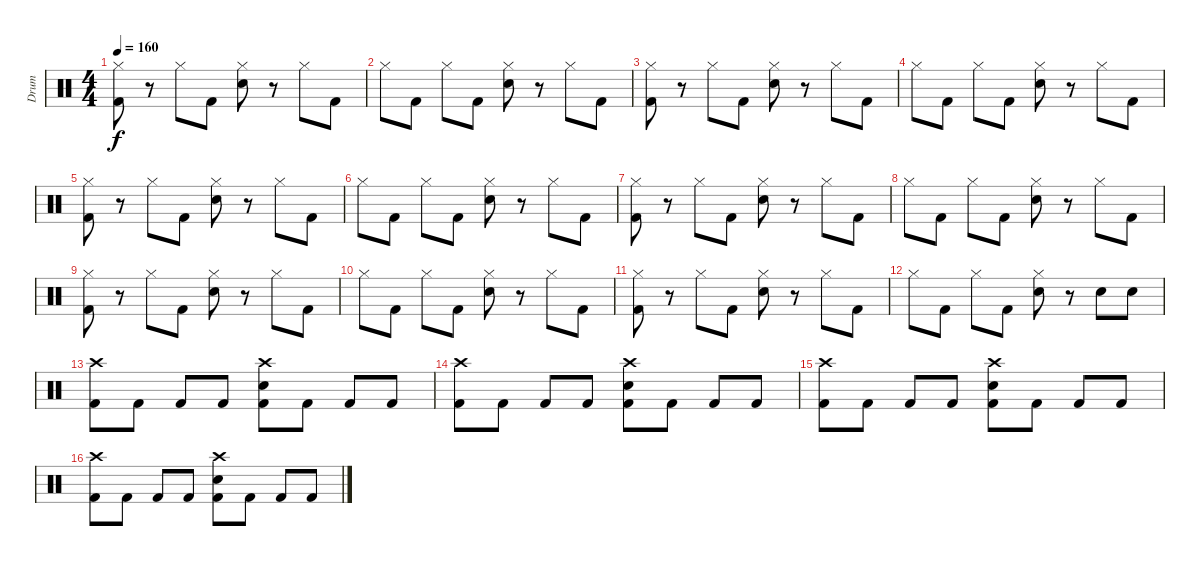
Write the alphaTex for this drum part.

\track ("Drum" "Drum") {instrument percussion}
\staff {score}
\articulation defaults
\ts (4 4)
\tempo 160
\clef neutral
\ks c
("Hi-Hat (closed)" "Kick (hit) 2").8{dy f} r.8 "Hi-Hat (closed)".8 "Kick (hit) 2".8 ("Hi-Hat (closed)" "Electric Snare (hit)").8 r.8 "Hi-Hat (closed)".8 "Kick (hit) 2".8 |
"Hi-Hat (closed)".8 "Kick (hit) 2".8 "Hi-Hat (closed)".8 "Kick (hit) 2".8 ("Hi-Hat (closed)" "Electric Snare (hit)").8 r.8 "Hi-Hat (closed)".8 "Kick (hit) 2".8 |
("Hi-Hat (closed)" "Kick (hit) 2").8 r.8 "Hi-Hat (closed)".8 "Kick (hit) 2".8 ("Hi-Hat (closed)" "Electric Snare (hit)").8 r.8 "Hi-Hat (closed)".8 "Kick (hit) 2".8 |
"Hi-Hat (closed)".8 "Kick (hit) 2".8 "Hi-Hat (closed)".8 "Kick (hit) 2".8 ("Hi-Hat (closed)" "Electric Snare (hit)").8 r.8 "Hi-Hat (closed)".8 "Kick (hit) 2".8 |
("Hi-Hat (closed)" "Kick (hit) 2").8 r.8 "Hi-Hat (closed)".8 "Kick (hit) 2".8 ("Hi-Hat (closed)" "Electric Snare (hit)").8 r.8 "Hi-Hat (closed)".8 "Kick (hit) 2".8 |
"Hi-Hat (closed)".8 "Kick (hit) 2".8 "Hi-Hat (closed)".8 "Kick (hit) 2".8 ("Hi-Hat (closed)" "Electric Snare (hit)").8 r.8 "Hi-Hat (closed)".8 "Kick (hit) 2".8 |
("Hi-Hat (closed)" "Kick (hit) 2").8 r.8 "Hi-Hat (closed)".8 "Kick (hit) 2".8 ("Hi-Hat (closed)" "Electric Snare (hit)").8 r.8 "Hi-Hat (closed)".8 "Kick (hit) 2".8 |
"Hi-Hat (closed)".8 "Kick (hit) 2".8 "Hi-Hat (closed)".8 "Kick (hit) 2".8 ("Hi-Hat (closed)" "Electric Snare (hit)").8 r.8 "Hi-Hat (closed)".8 "Kick (hit) 2".8 |
("Hi-Hat (closed)" "Kick (hit) 2").8 r.8 "Hi-Hat (closed)".8 "Kick (hit) 2".8 ("Hi-Hat (closed)" "Electric Snare (hit)").8 r.8 "Hi-Hat (closed)".8 "Kick (hit) 2".8 |
"Hi-Hat (closed)".8 "Kick (hit) 2".8 "Hi-Hat (closed)".8 "Kick (hit) 2".8 ("Hi-Hat (closed)" "Electric Snare (hit)").8 r.8 "Hi-Hat (closed)".8 "Kick (hit) 2".8 |
("Hi-Hat (closed)" "Kick (hit) 2").8 r.8 "Hi-Hat (closed)".8 "Kick (hit) 2".8 ("Hi-Hat (closed)" "Electric Snare (hit)").8 r.8 "Hi-Hat (closed)".8 "Kick (hit) 2".8 |
"Hi-Hat (closed)".8 "Kick (hit) 2".8 "Hi-Hat (closed)".8 "Kick (hit) 2".8 ("Hi-Hat (closed)" "Electric Snare (hit)").8 r.8 "Electric Snare (hit)".8 "Electric Snare (hit)".8 |
("Crash high (hit)" "Kick (hit) 2").8 "Kick (hit) 2".8 "Kick (hit) 2".8 "Kick (hit) 2".8 ("Crash high (hit)" "Electric Snare (hit)" "Kick (hit) 2").8 "Kick (hit) 2".8 "Kick (hit) 2".8 "Kick (hit) 2".8 |
("Crash high (hit)" "Kick (hit) 2").8 "Kick (hit) 2".8 "Kick (hit) 2".8 "Kick (hit) 2".8 ("Crash high (hit)" "Electric Snare (hit)" "Kick (hit) 2").8 "Kick (hit) 2".8 "Kick (hit) 2".8 "Kick (hit) 2".8 |
("Crash high (hit)" "Kick (hit) 2").8 "Kick (hit) 2".8 "Kick (hit) 2".8 "Kick (hit) 2".8 ("Crash high (hit)" "Electric Snare (hit)" "Kick (hit) 2").8 "Kick (hit) 2".8 "Kick (hit) 2".8 "Kick (hit) 2".8 |
("Crash high (hit)" "Kick (hit) 2").8 "Kick (hit) 2".8 "Kick (hit) 2".8 "Kick (hit) 2".8 ("Crash high (hit)" "Electric Snare (hit)" "Kick (hit) 2").8 "Kick (hit) 2".8 "Kick (hit) 2".8 "Kick (hit) 2".8
